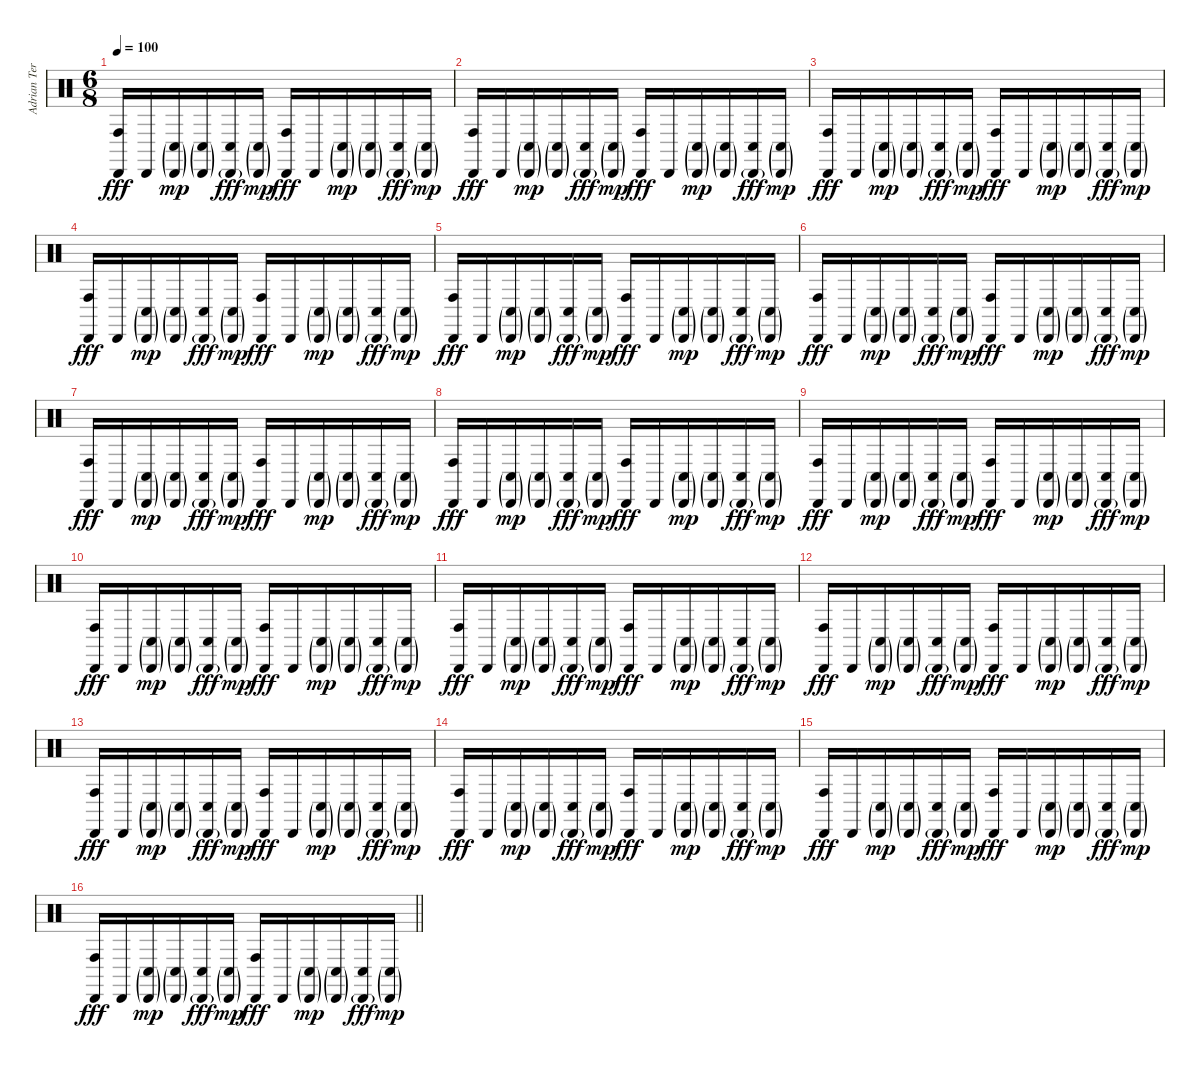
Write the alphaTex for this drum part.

\track ("Adrian Terrazas" "Adrian Ter") {instrument percussion}
\staff {score}
\articulation defaults
\ts (6 8)
\tempo 100
\clef neutral
\ks c
("Cabasa (hit)" "Conga high (hit)").16{dy fff} "Cabasa (hit)".16 ("Cabasa (hit)"{g} "Conga low (hit)"{g}).16{dy mp} ("Cabasa (hit)"{g} "Conga low (hit)"{g}).16 ("Cabasa (hit)"{g} "Conga low (hit)").16{dy fff} ("Cabasa (hit)"{g} "Conga low (hit)"{g}).16{dy mp} ("Cabasa (hit)" "Conga high (hit)").16{dy fff} "Cabasa (hit)".16 ("Cabasa (hit)"{g} "Conga low (hit)"{g}).16{dy mp} ("Cabasa (hit)"{g} "Conga low (hit)"{g}).16 ("Cabasa (hit)"{g} "Conga low (hit)").16{dy fff} ("Cabasa (hit)"{g} "Conga low (hit)"{g}).16{dy mp} |
("Cabasa (hit)" "Conga high (hit)").16{dy fff} "Cabasa (hit)".16 ("Cabasa (hit)"{g} "Conga low (hit)"{g}).16{dy mp} ("Cabasa (hit)"{g} "Conga low (hit)"{g}).16 ("Cabasa (hit)"{g} "Conga low (hit)").16{dy fff} ("Cabasa (hit)"{g} "Conga low (hit)"{g}).16{dy mp} ("Cabasa (hit)" "Conga high (hit)").16{dy fff} "Cabasa (hit)".16 ("Cabasa (hit)"{g} "Conga low (hit)"{g}).16{dy mp} ("Cabasa (hit)"{g} "Conga low (hit)"{g}).16 ("Cabasa (hit)"{g} "Conga low (hit)").16{dy fff} ("Cabasa (hit)"{g} "Conga low (hit)"{g}).16{dy mp} |
("Cabasa (hit)" "Conga high (hit)").16{dy fff} "Cabasa (hit)".16 ("Cabasa (hit)"{g} "Conga low (hit)"{g}).16{dy mp} ("Cabasa (hit)"{g} "Conga low (hit)"{g}).16 ("Cabasa (hit)"{g} "Conga low (hit)").16{dy fff} ("Cabasa (hit)"{g} "Conga low (hit)"{g}).16{dy mp} ("Cabasa (hit)" "Conga high (hit)").16{dy fff} "Cabasa (hit)".16 ("Cabasa (hit)"{g} "Conga low (hit)"{g}).16{dy mp} ("Cabasa (hit)"{g} "Conga low (hit)"{g}).16 ("Cabasa (hit)"{g} "Conga low (hit)").16{dy fff} ("Cabasa (hit)"{g} "Conga low (hit)"{g}).16{dy mp} |
("Cabasa (hit)" "Conga high (hit)").16{dy fff} "Cabasa (hit)".16 ("Cabasa (hit)"{g} "Conga low (hit)"{g}).16{dy mp} ("Cabasa (hit)"{g} "Conga low (hit)"{g}).16 ("Cabasa (hit)"{g} "Conga low (hit)").16{dy fff} ("Cabasa (hit)"{g} "Conga low (hit)"{g}).16{dy mp} ("Cabasa (hit)" "Conga high (hit)").16{dy fff} "Cabasa (hit)".16 ("Cabasa (hit)"{g} "Conga low (hit)"{g}).16{dy mp} ("Cabasa (hit)"{g} "Conga low (hit)"{g}).16 ("Cabasa (hit)"{g} "Conga low (hit)").16{dy fff} ("Cabasa (hit)"{g} "Conga low (hit)"{g}).16{dy mp} |
("Cabasa (hit)" "Conga high (hit)").16{dy fff} "Cabasa (hit)".16 ("Cabasa (hit)"{g} "Conga low (hit)"{g}).16{dy mp} ("Cabasa (hit)"{g} "Conga low (hit)"{g}).16 ("Cabasa (hit)"{g} "Conga low (hit)").16{dy fff} ("Cabasa (hit)"{g} "Conga low (hit)"{g}).16{dy mp} ("Cabasa (hit)" "Conga high (hit)").16{dy fff} "Cabasa (hit)".16 ("Cabasa (hit)"{g} "Conga low (hit)"{g}).16{dy mp} ("Cabasa (hit)"{g} "Conga low (hit)"{g}).16 ("Cabasa (hit)"{g} "Conga low (hit)").16{dy fff} ("Cabasa (hit)"{g} "Conga low (hit)"{g}).16{dy mp} |
("Cabasa (hit)" "Conga high (hit)").16{dy fff} "Cabasa (hit)".16 ("Cabasa (hit)"{g} "Conga low (hit)"{g}).16{dy mp} ("Cabasa (hit)"{g} "Conga low (hit)"{g}).16 ("Cabasa (hit)"{g} "Conga low (hit)").16{dy fff} ("Cabasa (hit)"{g} "Conga low (hit)"{g}).16{dy mp} ("Cabasa (hit)" "Conga high (hit)").16{dy fff} "Cabasa (hit)".16 ("Cabasa (hit)"{g} "Conga low (hit)"{g}).16{dy mp} ("Cabasa (hit)"{g} "Conga low (hit)"{g}).16 ("Cabasa (hit)"{g} "Conga low (hit)").16{dy fff} ("Cabasa (hit)"{g} "Conga low (hit)"{g}).16{dy mp} |
("Cabasa (hit)" "Conga high (hit)").16{dy fff} "Cabasa (hit)".16 ("Cabasa (hit)"{g} "Conga low (hit)"{g}).16{dy mp} ("Cabasa (hit)"{g} "Conga low (hit)"{g}).16 ("Cabasa (hit)"{g} "Conga low (hit)").16{dy fff} ("Cabasa (hit)"{g} "Conga low (hit)"{g}).16{dy mp} ("Cabasa (hit)" "Conga high (hit)").16{dy fff} "Cabasa (hit)".16 ("Cabasa (hit)"{g} "Conga low (hit)"{g}).16{dy mp} ("Cabasa (hit)"{g} "Conga low (hit)"{g}).16 ("Cabasa (hit)"{g} "Conga low (hit)").16{dy fff} ("Cabasa (hit)"{g} "Conga low (hit)"{g}).16{dy mp} |
("Cabasa (hit)" "Conga high (hit)").16{dy fff} "Cabasa (hit)".16 ("Cabasa (hit)"{g} "Conga low (hit)"{g}).16{dy mp} ("Cabasa (hit)"{g} "Conga low (hit)"{g}).16 ("Cabasa (hit)"{g} "Conga low (hit)").16{dy fff} ("Cabasa (hit)"{g} "Conga low (hit)"{g}).16{dy mp} ("Cabasa (hit)" "Conga high (hit)").16{dy fff} "Cabasa (hit)".16 ("Cabasa (hit)"{g} "Conga low (hit)"{g}).16{dy mp} ("Cabasa (hit)"{g} "Conga low (hit)"{g}).16 ("Cabasa (hit)"{g} "Conga low (hit)").16{dy fff} ("Cabasa (hit)"{g} "Conga low (hit)"{g}).16{dy mp} |
("Cabasa (hit)" "Conga high (hit)").16{dy fff} "Cabasa (hit)".16 ("Cabasa (hit)"{g} "Conga low (hit)"{g}).16{dy mp} ("Cabasa (hit)"{g} "Conga low (hit)"{g}).16 ("Cabasa (hit)"{g} "Conga low (hit)").16{dy fff} ("Cabasa (hit)"{g} "Conga low (hit)"{g}).16{dy mp} ("Cabasa (hit)" "Conga high (hit)").16{dy fff} "Cabasa (hit)".16 ("Cabasa (hit)"{g} "Conga low (hit)"{g}).16{dy mp} ("Cabasa (hit)"{g} "Conga low (hit)"{g}).16 ("Cabasa (hit)"{g} "Conga low (hit)").16{dy fff} ("Cabasa (hit)"{g} "Conga low (hit)"{g}).16{dy mp} |
("Cabasa (hit)" "Conga high (hit)").16{dy fff} "Cabasa (hit)".16 ("Cabasa (hit)"{g} "Conga low (hit)"{g}).16{dy mp} ("Cabasa (hit)"{g} "Conga low (hit)"{g}).16 ("Cabasa (hit)"{g} "Conga low (hit)").16{dy fff} ("Cabasa (hit)"{g} "Conga low (hit)"{g}).16{dy mp} ("Cabasa (hit)" "Conga high (hit)").16{dy fff} "Cabasa (hit)".16 ("Cabasa (hit)"{g} "Conga low (hit)"{g}).16{dy mp} ("Cabasa (hit)"{g} "Conga low (hit)"{g}).16 ("Cabasa (hit)"{g} "Conga low (hit)").16{dy fff} ("Cabasa (hit)"{g} "Conga low (hit)"{g}).16{dy mp} |
("Cabasa (hit)" "Conga high (hit)").16{dy fff} "Cabasa (hit)".16 ("Cabasa (hit)"{g} "Conga low (hit)"{g}).16{dy mp} ("Cabasa (hit)"{g} "Conga low (hit)"{g}).16 ("Cabasa (hit)"{g} "Conga low (hit)").16{dy fff} ("Cabasa (hit)"{g} "Conga low (hit)"{g}).16{dy mp} ("Cabasa (hit)" "Conga high (hit)").16{dy fff} "Cabasa (hit)".16 ("Cabasa (hit)"{g} "Conga low (hit)"{g}).16{dy mp} ("Cabasa (hit)"{g} "Conga low (hit)"{g}).16 ("Cabasa (hit)"{g} "Conga low (hit)").16{dy fff} ("Cabasa (hit)"{g} "Conga low (hit)"{g}).16{dy mp} |
("Cabasa (hit)" "Conga high (hit)").16{dy fff} "Cabasa (hit)".16 ("Cabasa (hit)"{g} "Conga low (hit)"{g}).16{dy mp} ("Cabasa (hit)"{g} "Conga low (hit)"{g}).16 ("Cabasa (hit)"{g} "Conga low (hit)").16{dy fff} ("Cabasa (hit)"{g} "Conga low (hit)"{g}).16{dy mp} ("Cabasa (hit)" "Conga high (hit)").16{dy fff} "Cabasa (hit)".16 ("Cabasa (hit)"{g} "Conga low (hit)"{g}).16{dy mp} ("Cabasa (hit)"{g} "Conga low (hit)"{g}).16 ("Cabasa (hit)"{g} "Conga low (hit)").16{dy fff} ("Cabasa (hit)"{g} "Conga low (hit)"{g}).16{dy mp} |
("Cabasa (hit)" "Conga high (hit)").16{dy fff} "Cabasa (hit)".16 ("Cabasa (hit)"{g} "Conga low (hit)"{g}).16{dy mp} ("Cabasa (hit)"{g} "Conga low (hit)"{g}).16 ("Cabasa (hit)"{g} "Conga low (hit)").16{dy fff} ("Cabasa (hit)"{g} "Conga low (hit)"{g}).16{dy mp} ("Cabasa (hit)" "Conga high (hit)").16{dy fff} "Cabasa (hit)".16 ("Cabasa (hit)"{g} "Conga low (hit)"{g}).16{dy mp} ("Cabasa (hit)"{g} "Conga low (hit)"{g}).16 ("Cabasa (hit)"{g} "Conga low (hit)").16{dy fff} ("Cabasa (hit)"{g} "Conga low (hit)"{g}).16{dy mp} |
("Cabasa (hit)" "Conga high (hit)").16{dy fff} "Cabasa (hit)".16 ("Cabasa (hit)"{g} "Conga low (hit)"{g}).16{dy mp} ("Cabasa (hit)"{g} "Conga low (hit)"{g}).16 ("Cabasa (hit)"{g} "Conga low (hit)").16{dy fff} ("Cabasa (hit)"{g} "Conga low (hit)"{g}).16{dy mp} ("Cabasa (hit)" "Conga high (hit)").16{dy fff} "Cabasa (hit)".16 ("Cabasa (hit)"{g} "Conga low (hit)"{g}).16{dy mp} ("Cabasa (hit)"{g} "Conga low (hit)"{g}).16 ("Cabasa (hit)"{g} "Conga low (hit)").16{dy fff} ("Cabasa (hit)"{g} "Conga low (hit)"{g}).16{dy mp} |
("Cabasa (hit)" "Conga high (hit)").16{dy fff} "Cabasa (hit)".16 ("Cabasa (hit)"{g} "Conga low (hit)"{g}).16{dy mp} ("Cabasa (hit)"{g} "Conga low (hit)"{g}).16 ("Cabasa (hit)"{g} "Conga low (hit)").16{dy fff} ("Cabasa (hit)"{g} "Conga low (hit)"{g}).16{dy mp} ("Cabasa (hit)" "Conga high (hit)").16{dy fff} "Cabasa (hit)".16 ("Cabasa (hit)"{g} "Conga low (hit)"{g}).16{dy mp} ("Cabasa (hit)"{g} "Conga low (hit)"{g}).16 ("Cabasa (hit)"{g} "Conga low (hit)").16{dy fff} ("Cabasa (hit)"{g} "Conga low (hit)"{g}).16{dy mp} |
\barLineRight lightlight
("Cabasa (hit)" "Conga high (hit)").16{dy fff} "Cabasa (hit)".16 ("Cabasa (hit)"{g} "Conga low (hit)"{g}).16{dy mp} ("Cabasa (hit)"{g} "Conga low (hit)"{g}).16 ("Cabasa (hit)"{g} "Conga low (hit)").16{dy fff} ("Cabasa (hit)"{g} "Conga low (hit)"{g}).16{dy mp} ("Cabasa (hit)" "Conga high (hit)").16{dy fff} "Cabasa (hit)".16 ("Cabasa (hit)"{g} "Conga low (hit)"{g}).16{dy mp} ("Cabasa (hit)"{g} "Conga low (hit)"{g}).16 ("Cabasa (hit)"{g} "Conga low (hit)").16{dy fff} ("Cabasa (hit)"{g} "Conga low (hit)"{g}).16{dy mp}
